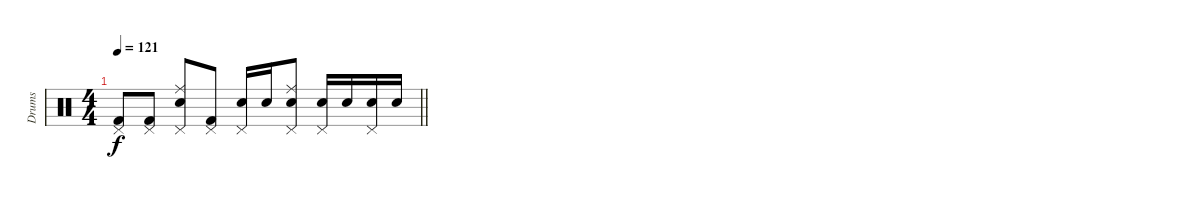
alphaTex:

\track ("Drums" "Drums") {instrument percussion}
\staff {score}
\articulation defaults
\ts (4 4)
\tempo 121
\clef neutral
\barLineRight lightlight
\ks c
("Pedal Hi-Hat (hit)" "Kick (hit) 2").8{dy f} ("Pedal Hi-Hat (hit)" "Kick (hit) 2").8 ("Pedal Hi-Hat (hit)" "Ride (middle)" "Snare (hit) 2").8 ("Pedal Hi-Hat (hit)" "Kick (hit) 2").8 ("Pedal Hi-Hat (hit)" "Snare (hit) 2").16 "Snare (hit) 2".16 ("Pedal Hi-Hat (hit)" "Ride (middle)" "Snare (hit) 2").8 ("Pedal Hi-Hat (hit)" "Snare (hit) 2").16 "Snare (hit) 2".16 ("Pedal Hi-Hat (hit)" "Snare (hit) 2").16 "Snare (hit) 2".16
